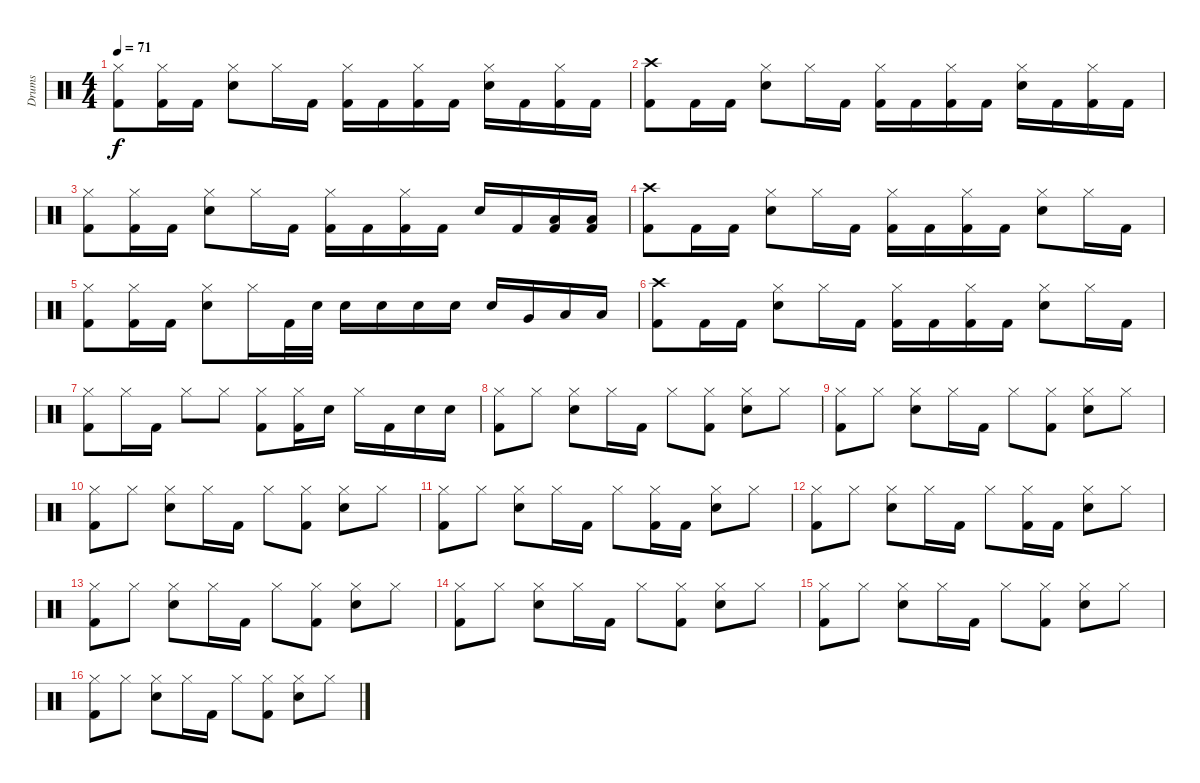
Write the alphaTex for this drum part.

\track ("Drums" "Drums") {instrument percussion}
\staff {score}
\articulation defaults
\ts (4 4)
\tempo 71
\clef neutral
\ks c
("Hi-Hat (closed)" "Kick (hit) 2").8{dy f} ("Hi-Hat (closed)" "Kick (hit) 2").16 "Kick (hit) 2".16 ("Hi-Hat (closed)" "Snare (hit) 2").8 "Hi-Hat (closed)".16 "Kick (hit) 2".16 ("Hi-Hat (closed)" "Kick (hit) 2").16 "Kick (hit) 2".16 ("Hi-Hat (closed)" "Kick (hit) 2").16 "Kick (hit) 2".16 ("Hi-Hat (closed)" "Snare (hit) 2").16 "Kick (hit) 2".16 ("Hi-Hat (closed)" "Kick (hit) 2").16 "Kick (hit) 2".16 |
("Crash high (hit)" "Kick (hit) 2").8 "Kick (hit) 2".16 "Kick (hit) 2".16 ("Hi-Hat (closed)" "Snare (hit) 2").8 "Hi-Hat (closed)".16 "Kick (hit) 2".16 ("Hi-Hat (closed)" "Kick (hit) 2").16 "Kick (hit) 2".16 ("Hi-Hat (closed)" "Kick (hit) 2").16 "Kick (hit) 2".16 ("Hi-Hat (closed)" "Snare (hit) 2").16 "Kick (hit) 2".16 ("Hi-Hat (closed)" "Kick (hit) 2").16 "Kick (hit) 2".16 |
("Kick (hit) 2" "Hi-Hat (closed)").8 ("Hi-Hat (closed)" "Kick (hit) 2").16 "Kick (hit) 2".16 ("Hi-Hat (closed)" "Snare (hit) 2").8 "Hi-Hat (closed)".16 "Kick (hit) 2".16 ("Hi-Hat (closed)" "Kick (hit) 2").16 "Kick (hit) 2".16 ("Hi-Hat (closed)" "Kick (hit) 2").16 "Kick (hit) 2".16 "Snare (hit) 2".16 "Kick (hit) 2".16 ("Low Tom (hit)" "Kick (hit) 2").16 ("Low Tom (hit)" "Kick (hit) 2").16 |
("Crash high (hit)" "Kick (hit) 2").8 "Kick (hit) 2".16 "Kick (hit) 2".16 ("Snare (hit) 2" "Hi-Hat (closed)").8 "Hi-Hat (closed)".16 "Kick (hit) 2".16 ("Hi-Hat (closed)" "Kick (hit) 2").16 "Kick (hit) 2".16 ("Hi-Hat (closed)" "Kick (hit) 2").16 "Kick (hit) 2".16 ("Snare (hit) 2" "Hi-Hat (closed)").8 "Hi-Hat (closed)".16 "Kick (hit) 2".16 |
("Hi-Hat (closed)" "Kick (hit) 2").8 ("Hi-Hat (closed)" "Kick (hit) 2").16 "Kick (hit) 2".16 ("Hi-Hat (closed)" "Snare (hit) 2").8 "Hi-Hat (closed)".16 "Kick (hit) 2".32 "Snare (hit) 2".32 "Snare (hit) 2".16 "Snare (hit) 2".16 "Snare (hit) 2".16 "Snare (hit) 2".16 "Snare (hit) 2".16 "Very Low Tom (hit)".16 "Low Floor Tom (hit)".16 "Low Floor Tom (hit)".16 |
("Crash high (hit)" "Kick (hit) 2").8 "Kick (hit) 2".16 "Kick (hit) 2".16 ("Snare (hit) 2" "Hi-Hat (closed)").8 "Hi-Hat (closed)".16 "Kick (hit) 2".16 ("Hi-Hat (closed)" "Kick (hit) 2").16 "Kick (hit) 2".16 ("Hi-Hat (closed)" "Kick (hit) 2").16 "Kick (hit) 2".16 ("Snare (hit) 2" "Hi-Hat (closed)").8 "Hi-Hat (closed)".16 "Kick (hit) 2".16 |
("Hi-Hat (closed)" "Kick (hit) 2").8 "Hi-Hat (closed)".16 "Kick (hit) 2".16 "Hi-Hat (closed)".8 "Hi-Hat (closed)".8 ("Hi-Hat (closed)" "Kick (hit) 2").8 ("Hi-Hat (closed)" "Kick (hit) 2").16 "Snare (hit) 2".16 "Hi-Hat (closed)".16 "Kick (hit) 2".16 "Snare (hit) 2".16 "Snare (hit) 2".16 |
("Hi-Hat (closed)" "Kick (hit) 2").8 "Hi-Hat (closed)".8 ("Hi-Hat (closed)" "Snare (hit) 2").8 "Hi-Hat (closed)".16 "Kick (hit) 2".16 "Hi-Hat (closed)".8 ("Kick (hit) 2" "Hi-Hat (closed)").8 ("Hi-Hat (closed)" "Snare (hit) 2").8 "Hi-Hat (closed)".8 |
("Hi-Hat (closed)" "Kick (hit) 2").8 "Hi-Hat (closed)".8 ("Hi-Hat (closed)" "Snare (hit) 2").8 "Hi-Hat (closed)".16 "Kick (hit) 2".16 "Hi-Hat (closed)".8 ("Kick (hit) 2" "Hi-Hat (closed)").8 ("Hi-Hat (closed)" "Snare (hit) 2").8 "Hi-Hat (closed)".8 |
("Hi-Hat (closed)" "Kick (hit) 2").8 "Hi-Hat (closed)".8 ("Hi-Hat (closed)" "Snare (hit) 2").8 "Hi-Hat (closed)".16 "Kick (hit) 2".16 "Hi-Hat (closed)".8 ("Kick (hit) 2" "Hi-Hat (closed)").8 ("Hi-Hat (closed)" "Snare (hit) 2").8 "Hi-Hat (closed)".8 |
("Hi-Hat (closed)" "Kick (hit) 2").8 "Hi-Hat (closed)".8 ("Hi-Hat (closed)" "Snare (hit) 2").8 "Hi-Hat (closed)".16 "Kick (hit) 2".16 "Hi-Hat (closed)".8 ("Kick (hit) 2" "Hi-Hat (closed)").16 "Kick (hit) 2".16 ("Hi-Hat (closed)" "Snare (hit) 2").8 "Hi-Hat (closed)".8 |
("Hi-Hat (closed)" "Kick (hit) 2").8 "Hi-Hat (closed)".8 ("Hi-Hat (closed)" "Snare (hit) 2").8 "Hi-Hat (closed)".16 "Kick (hit) 2".16 "Hi-Hat (closed)".8 ("Kick (hit) 2" "Hi-Hat (closed)").16 "Kick (hit) 2".16 ("Hi-Hat (closed)" "Snare (hit) 2").8 "Hi-Hat (closed)".8 |
("Hi-Hat (closed)" "Kick (hit) 2").8 "Hi-Hat (closed)".8 ("Hi-Hat (closed)" "Snare (hit) 2").8 "Hi-Hat (closed)".16 "Kick (hit) 2".16 "Hi-Hat (closed)".8 ("Kick (hit) 2" "Hi-Hat (closed)").8 ("Hi-Hat (closed)" "Snare (hit) 2").8 "Hi-Hat (closed)".8 |
("Hi-Hat (closed)" "Kick (hit) 2").8 "Hi-Hat (closed)".8 ("Hi-Hat (closed)" "Snare (hit) 2").8 "Hi-Hat (closed)".16 "Kick (hit) 2".16 "Hi-Hat (closed)".8 ("Kick (hit) 2" "Hi-Hat (closed)").8 ("Hi-Hat (closed)" "Snare (hit) 2").8 "Hi-Hat (closed)".8 |
("Hi-Hat (closed)" "Kick (hit) 2").8 "Hi-Hat (closed)".8 ("Hi-Hat (closed)" "Snare (hit) 2").8 "Hi-Hat (closed)".16 "Kick (hit) 2".16 "Hi-Hat (closed)".8 ("Kick (hit) 2" "Hi-Hat (closed)").8 ("Hi-Hat (closed)" "Snare (hit) 2").8 "Hi-Hat (closed)".8 |
("Hi-Hat (closed)" "Kick (hit) 2").8 "Hi-Hat (closed)".8 ("Hi-Hat (closed)" "Snare (hit) 2").8 "Hi-Hat (closed)".16 "Kick (hit) 2".16 "Hi-Hat (closed)".8 ("Kick (hit) 2" "Hi-Hat (closed)").8 ("Hi-Hat (closed)" "Snare (hit) 2").8 "Hi-Hat (closed)".8
